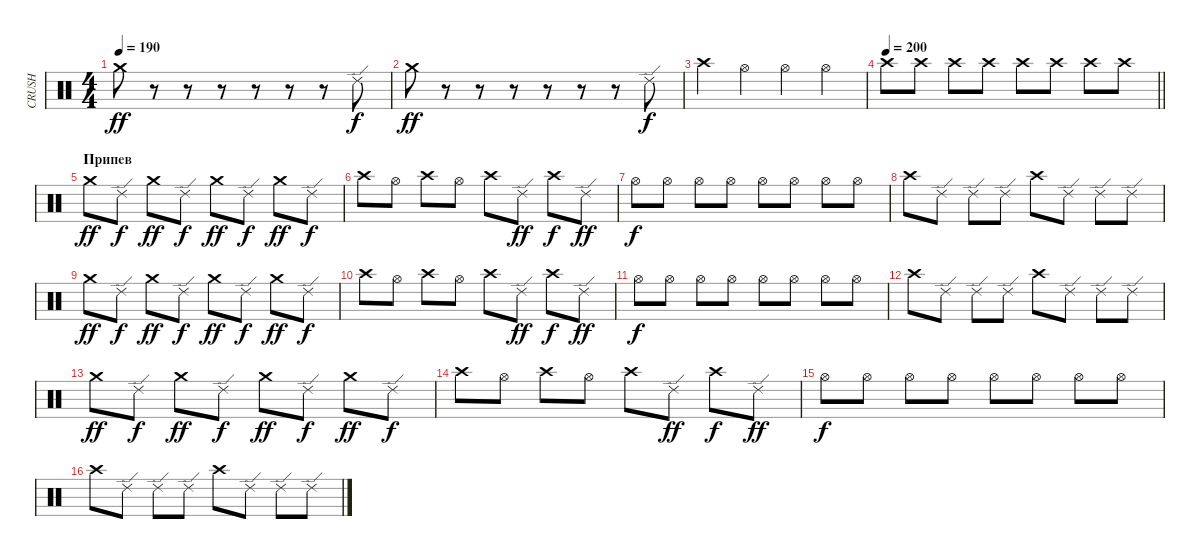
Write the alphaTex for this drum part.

\track ("CRUSH" "CRUSH") {instrument percussion}
\staff {score}
\articulation defaults
\ts (4 4)
\tempo 190
\clef neutral
\ks c "Crash medium (hit)".8{dy ff}
r.8 r.8 r.8 r.8 r.8 r.8 "Ride (edge) 2".8{dy f} |
"Crash medium (hit)".8{dy ff} r.8 r.8 r.8 r.8 r.8 r.8 "Ride (edge) 2".8{dy f} |
"Crash high (hit)".4 "Hi-Hat (open)".4 "Hi-Hat (open)".4 "Hi-Hat (open)".4 |
\tempo 200
\barLineRight lightlight "Crash high (hit)".8 "Crash high (hit)".8 "Crash high (hit)".8 "Crash high (hit)".8 "Crash high (hit)".8 "Crash high (hit)".8 "Crash high (hit)".8 "Crash high (hit)".8
|
\section ("" "Припев")
"Crash medium (hit)".8{dy ff} "Ride (edge) 2".8{dy f} "Crash medium (hit)".8{dy ff} "Ride (edge) 2".8{dy f} "Crash medium (hit)".8{dy ff} "Ride (edge) 2".8{dy f} "Crash medium (hit)".8{dy ff} "Ride (edge) 2".8{dy f} |
"Crash high (hit)".8 "Hi-Hat (open)".8 "Crash high (hit)".8 "Hi-Hat (open)".8 "Crash high (hit)".8 "Ride (edge) 2".8{dy ff} "Crash high (hit)".8{dy f} "Ride (edge) 2".8{dy ff} |
"Hi-Hat (open)".8{dy f} "Hi-Hat (open)".8 "Hi-Hat (open)".8 "Hi-Hat (open)".8 "Hi-Hat (open)".8 "Hi-Hat (open)".8 "Hi-Hat (open)".8 "Hi-Hat (open)".8 |
"Crash high (hit)".8 "Ride (edge) 2".8 "Ride (edge) 2".8 "Ride (edge) 2".8 "Crash high (hit)".8 "Ride (edge) 2".8 "Ride (edge) 2".8 "Ride (edge) 2".8 |
"Crash medium (hit)".8{dy ff} "Ride (edge) 2".8{dy f} "Crash medium (hit)".8{dy ff} "Ride (edge) 2".8{dy f} "Crash medium (hit)".8{dy ff} "Ride (edge) 2".8{dy f} "Crash medium (hit)".8{dy ff} "Ride (edge) 2".8{dy f} |
"Crash high (hit)".8 "Hi-Hat (open)".8 "Crash high (hit)".8 "Hi-Hat (open)".8 "Crash high (hit)".8 "Ride (edge) 2".8{dy ff} "Crash high (hit)".8{dy f} "Ride (edge) 2".8{dy ff} |
"Hi-Hat (open)".8{dy f} "Hi-Hat (open)".8 "Hi-Hat (open)".8 "Hi-Hat (open)".8 "Hi-Hat (open)".8 "Hi-Hat (open)".8 "Hi-Hat (open)".8 "Hi-Hat (open)".8 |
"Crash high (hit)".8 "Ride (edge) 2".8 "Ride (edge) 2".8 "Ride (edge) 2".8 "Crash high (hit)".8 "Ride (edge) 2".8 "Ride (edge) 2".8 "Ride (edge) 2".8 |
"Crash medium (hit)".8{dy ff} "Ride (edge) 2".8{dy f} "Crash medium (hit)".8{dy ff} "Ride (edge) 2".8{dy f} "Crash medium (hit)".8{dy ff} "Ride (edge) 2".8{dy f} "Crash medium (hit)".8{dy ff} "Ride (edge) 2".8{dy f} |
"Crash high (hit)".8 "Hi-Hat (open)".8 "Crash high (hit)".8 "Hi-Hat (open)".8 "Crash high (hit)".8 "Ride (edge) 2".8{dy ff} "Crash high (hit)".8{dy f} "Ride (edge) 2".8{dy ff} |
"Hi-Hat (open)".8{dy f} "Hi-Hat (open)".8 "Hi-Hat (open)".8 "Hi-Hat (open)".8 "Hi-Hat (open)".8 "Hi-Hat (open)".8 "Hi-Hat (open)".8 "Hi-Hat (open)".8 |
"Crash high (hit)".8 "Ride (edge) 2".8 "Ride (edge) 2".8 "Ride (edge) 2".8 "Crash high (hit)".8 "Ride (edge) 2".8 "Ride (edge) 2".8 "Ride (edge) 2".8
